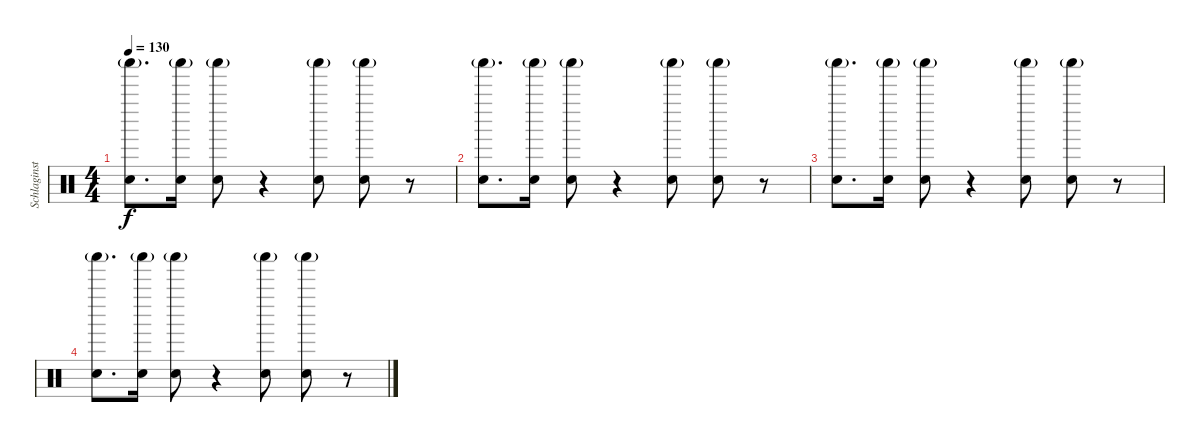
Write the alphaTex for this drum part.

\track ("Schlaginstrumente - Auswahl" "Schlaginst") {instrument percussion}
\staff {score}
\articulation defaults
\ts (4 4)
\tempo 130
\clef neutral
\ks c
("Shaker (hit)"{g} "Hand Clap (hit)").8{d dy f} ("Shaker (hit)"{g} "Hand Clap (hit)").16 ("Shaker (hit)"{g} "Hand Clap (hit)").8 r.4 ("Shaker (hit)"{g} "Hand Clap (hit)").8 ("Shaker (hit)"{g} "Hand Clap (hit)").8 r.8 |
("Shaker (hit)"{g} "Hand Clap (hit)").8{d} ("Shaker (hit)"{g} "Hand Clap (hit)").16 ("Shaker (hit)"{g} "Hand Clap (hit)").8 r.4 ("Shaker (hit)"{g} "Hand Clap (hit)").8 ("Shaker (hit)"{g} "Hand Clap (hit)").8 r.8 |
("Shaker (hit)"{g} "Hand Clap (hit)").8{d} ("Shaker (hit)"{g} "Hand Clap (hit)").16 ("Shaker (hit)"{g} "Hand Clap (hit)").8 r.4 ("Shaker (hit)"{g} "Hand Clap (hit)").8 ("Shaker (hit)"{g} "Hand Clap (hit)").8 r.8 |
("Shaker (hit)"{g} "Hand Clap (hit)").8{d} ("Shaker (hit)"{g} "Hand Clap (hit)").16 ("Shaker (hit)"{g} "Hand Clap (hit)").8 r.4 ("Shaker (hit)"{g} "Hand Clap (hit)").8 ("Shaker (hit)"{g} "Hand Clap (hit)").8 r.8
